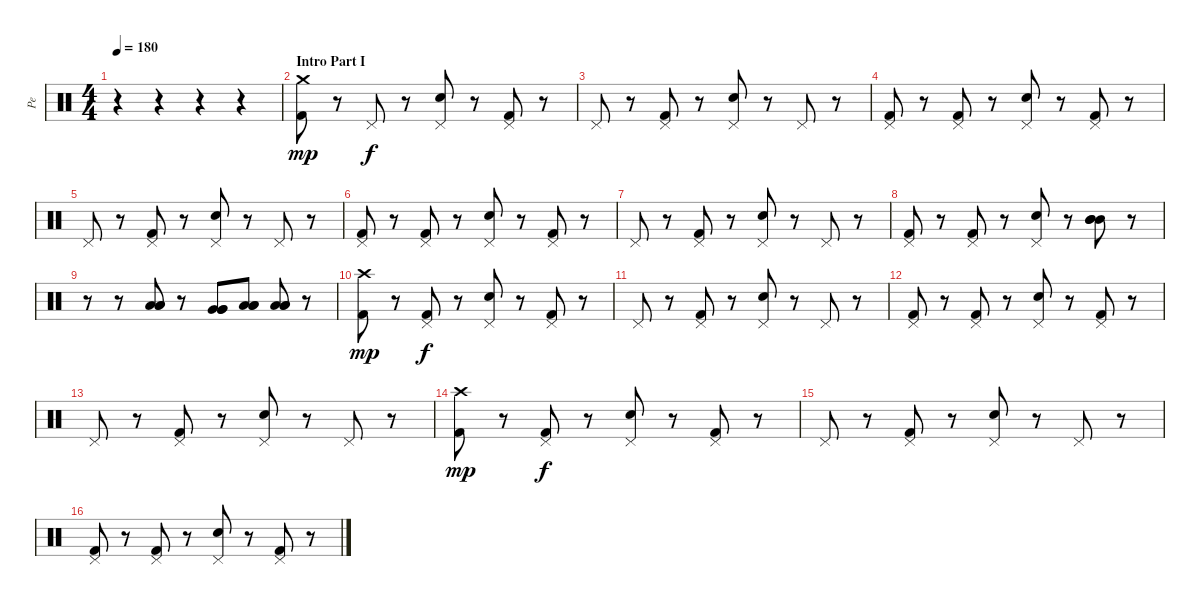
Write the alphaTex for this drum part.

\track ("Pe" "Pe") {instrument percussion}
\staff {score}
\articulation defaults
\ts (4 4)
\tempo 180
\clef neutral
\ks c
r.4{dy mp} r.4 r.4 r.4 |
\section ("" "Intro Part I")
("Crash medium (hit)" "Kick (hit) 2").8 r.8 "Pedal Hi-Hat (hit)".8{dy f} r.8 ("Pedal Hi-Hat (hit)" "Electric Snare (hit)").8 r.8 ("Pedal Hi-Hat (hit)" "Kick (hit) 2").8 r.8 |
"Pedal Hi-Hat (hit)".8 r.8 ("Pedal Hi-Hat (hit)" "Kick (hit) 2").8 r.8 ("Pedal Hi-Hat (hit)" "Electric Snare (hit)").8 r.8 "Pedal Hi-Hat (hit)".8 r.8 |
("Pedal Hi-Hat (hit)" "Kick (hit) 2").8 r.8 ("Pedal Hi-Hat (hit)" "Kick (hit) 2").8 r.8 ("Pedal Hi-Hat (hit)" "Electric Snare (hit)").8 r.8 ("Pedal Hi-Hat (hit)" "Kick (hit) 2").8 r.8 |
"Pedal Hi-Hat (hit)".8 r.8 ("Pedal Hi-Hat (hit)" "Kick (hit) 2").8 r.8 ("Pedal Hi-Hat (hit)" "Electric Snare (hit)").8 r.8 "Pedal Hi-Hat (hit)".8 r.8 |
("Pedal Hi-Hat (hit)" "Kick (hit) 2").8 r.8 ("Pedal Hi-Hat (hit)" "Kick (hit) 2").8 r.8 ("Pedal Hi-Hat (hit)" "Electric Snare (hit)").8 r.8 ("Pedal Hi-Hat (hit)" "Kick (hit) 2").8 r.8 |
"Pedal Hi-Hat (hit)".8 r.8 ("Pedal Hi-Hat (hit)" "Kick (hit) 2").8 r.8 ("Pedal Hi-Hat (hit)" "Electric Snare (hit)").8 r.8 "Pedal Hi-Hat (hit)".8 r.8 |
("Pedal Hi-Hat (hit)" "Kick (hit) 2").8 r.8 ("Pedal Hi-Hat (hit)" "Kick (hit) 2").8 r.8 ("Pedal Hi-Hat (hit)" "Electric Snare (hit)").8 r.8 ("Mid Tom (hit)" "Mid Tom (hit)" "Mid Tom (hit)").8 r.8 |
r.8 r.8 ("Low Tom (hit)" "Low Tom (hit)" "Low Tom (hit)").8 r.8 ("Very Low Tom (hit)" "Very Low Tom (hit)" "Very Low Tom (hit)").8 ("Low Floor Tom (hit)" "Low Floor Tom (hit)" "Low Floor Tom (hit)").8 ("Low Floor Tom (hit)" "Low Floor Tom (hit)" "Low Floor Tom (hit)").8 r.8 |
("Crash high (hit)" "Kick (hit) 2").8{dy mp} r.8 ("Pedal Hi-Hat (hit)" "Kick (hit) 2").8{dy f} r.8 ("Pedal Hi-Hat (hit)" "Electric Snare (hit)").8 r.8 ("Pedal Hi-Hat (hit)" "Kick (hit) 2").8 r.8 |
"Pedal Hi-Hat (hit)".8 r.8 ("Pedal Hi-Hat (hit)" "Kick (hit) 2").8 r.8 ("Pedal Hi-Hat (hit)" "Electric Snare (hit)").8 r.8 "Pedal Hi-Hat (hit)".8 r.8 |
("Pedal Hi-Hat (hit)" "Kick (hit) 2").8 r.8 ("Pedal Hi-Hat (hit)" "Kick (hit) 2").8 r.8 ("Pedal Hi-Hat (hit)" "Electric Snare (hit)").8 r.8 ("Pedal Hi-Hat (hit)" "Kick (hit) 2").8 r.8 |
"Pedal Hi-Hat (hit)".8 r.8 ("Pedal Hi-Hat (hit)" "Kick (hit) 2").8 r.8 ("Pedal Hi-Hat (hit)" "Electric Snare (hit)").8 r.8 "Pedal Hi-Hat (hit)".8 r.8 |
("Crash high (hit)" "Kick (hit) 2").8{dy mp} r.8 ("Pedal Hi-Hat (hit)" "Kick (hit) 2").8{dy f} r.8 ("Pedal Hi-Hat (hit)" "Electric Snare (hit)").8 r.8 ("Pedal Hi-Hat (hit)" "Kick (hit) 2").8 r.8 |
"Pedal Hi-Hat (hit)".8 r.8 ("Pedal Hi-Hat (hit)" "Kick (hit) 2").8 r.8 ("Pedal Hi-Hat (hit)" "Electric Snare (hit)").8 r.8 "Pedal Hi-Hat (hit)".8 r.8 |
("Pedal Hi-Hat (hit)" "Kick (hit) 2").8 r.8 ("Pedal Hi-Hat (hit)" "Kick (hit) 2").8 r.8 ("Pedal Hi-Hat (hit)" "Electric Snare (hit)").8 r.8 ("Pedal Hi-Hat (hit)" "Kick (hit) 2").8 r.8
